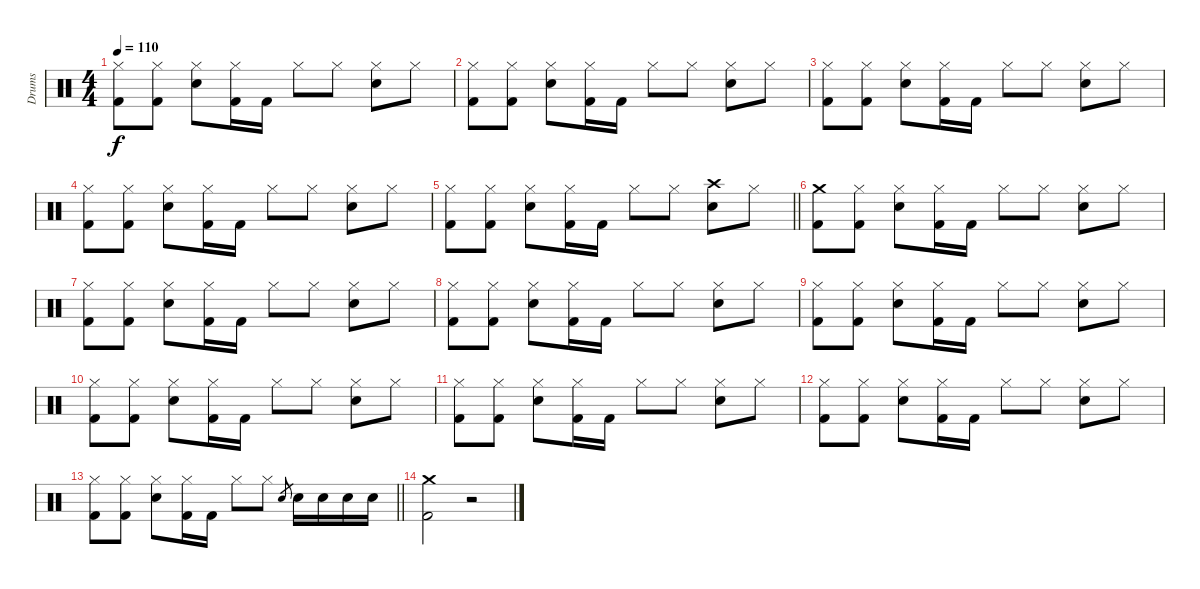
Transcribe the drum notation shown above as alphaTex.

\track ("Drums" "Drums") {instrument percussion}
\staff {score}
\articulation defaults
\ts (4 4)
\tempo 110
\clef neutral
\ks c
("Hi-Hat (closed)" "Kick (hit) 2").8{dy f} ("Hi-Hat (closed)" "Kick (hit) 2").8 ("Hi-Hat (closed)" "Snare (hit) 2").8 ("Hi-Hat (closed)" "Kick (hit) 2").16 "Kick (hit) 2".16 "Hi-Hat (closed)".8 "Hi-Hat (closed)".8 ("Hi-Hat (closed)" "Snare (hit) 2").8 "Hi-Hat (closed)".8 |
("Hi-Hat (closed)" "Kick (hit) 2").8 ("Hi-Hat (closed)" "Kick (hit) 2").8 ("Hi-Hat (closed)" "Snare (hit) 2").8 ("Hi-Hat (closed)" "Kick (hit) 2").16 "Kick (hit) 2".16 "Hi-Hat (closed)".8 "Hi-Hat (closed)".8 ("Hi-Hat (closed)" "Snare (hit) 2").8 "Hi-Hat (closed)".8 |
("Hi-Hat (closed)" "Kick (hit) 2").8 ("Hi-Hat (closed)" "Kick (hit) 2").8 ("Hi-Hat (closed)" "Snare (hit) 2").8 ("Hi-Hat (closed)" "Kick (hit) 2").16 "Kick (hit) 2".16 "Hi-Hat (closed)".8 "Hi-Hat (closed)".8 ("Hi-Hat (closed)" "Snare (hit) 2").8 "Hi-Hat (closed)".8 |
("Hi-Hat (closed)" "Kick (hit) 2").8 ("Hi-Hat (closed)" "Kick (hit) 2").8 ("Hi-Hat (closed)" "Snare (hit) 2").8 ("Hi-Hat (closed)" "Kick (hit) 2").16 "Kick (hit) 2".16 "Hi-Hat (closed)".8 "Hi-Hat (closed)".8 ("Hi-Hat (closed)" "Snare (hit) 2").8 "Hi-Hat (closed)".8 |
\barLineRight lightlight
("Hi-Hat (closed)" "Kick (hit) 2").8 ("Hi-Hat (closed)" "Kick (hit) 2").8 ("Hi-Hat (closed)" "Snare (hit) 2").8 ("Hi-Hat (closed)" "Kick (hit) 2").16 "Kick (hit) 2".16 "Hi-Hat (closed)".8 "Hi-Hat (closed)".8 ("Crash high (hit)" "Snare (hit) 2").8 "Hi-Hat (closed)".8 |
("Crash medium (hit)" "Kick (hit) 2").8 ("Hi-Hat (closed)" "Kick (hit) 2").8 ("Hi-Hat (closed)" "Snare (hit) 2").8 ("Hi-Hat (closed)" "Kick (hit) 2").16 "Kick (hit) 2".16 "Hi-Hat (closed)".8 "Hi-Hat (closed)".8 ("Hi-Hat (closed)" "Snare (hit) 2").8 "Hi-Hat (closed)".8 |
("Hi-Hat (closed)" "Kick (hit) 2").8 ("Hi-Hat (closed)" "Kick (hit) 2").8 ("Hi-Hat (closed)" "Snare (hit) 2").8 ("Hi-Hat (closed)" "Kick (hit) 2").16 "Kick (hit) 2".16 "Hi-Hat (closed)".8 "Hi-Hat (closed)".8 ("Hi-Hat (closed)" "Snare (hit) 2").8 "Hi-Hat (closed)".8 |
("Hi-Hat (closed)" "Kick (hit) 2").8 ("Hi-Hat (closed)" "Kick (hit) 2").8 ("Hi-Hat (closed)" "Snare (hit) 2").8 ("Hi-Hat (closed)" "Kick (hit) 2").16 "Kick (hit) 2".16 "Hi-Hat (closed)".8 "Hi-Hat (closed)".8 ("Hi-Hat (closed)" "Snare (hit) 2").8 "Hi-Hat (closed)".8 |
("Hi-Hat (closed)" "Kick (hit) 2").8 ("Hi-Hat (closed)" "Kick (hit) 2").8 ("Hi-Hat (closed)" "Snare (hit) 2").8 ("Hi-Hat (closed)" "Kick (hit) 2").16 "Kick (hit) 2".16 "Hi-Hat (closed)".8 "Hi-Hat (closed)".8 ("Hi-Hat (closed)" "Snare (hit) 2").8 "Hi-Hat (closed)".8 |
("Hi-Hat (closed)" "Kick (hit) 2").8 ("Hi-Hat (closed)" "Kick (hit) 2").8 ("Hi-Hat (closed)" "Snare (hit) 2").8 ("Hi-Hat (closed)" "Kick (hit) 2").16 "Kick (hit) 2".16 "Hi-Hat (closed)".8 "Hi-Hat (closed)".8 ("Hi-Hat (closed)" "Snare (hit) 2").8 "Hi-Hat (closed)".8 |
("Hi-Hat (closed)" "Kick (hit) 2").8 ("Hi-Hat (closed)" "Kick (hit) 2").8 ("Hi-Hat (closed)" "Snare (hit) 2").8 ("Hi-Hat (closed)" "Kick (hit) 2").16 "Kick (hit) 2".16 "Hi-Hat (closed)".8 "Hi-Hat (closed)".8 ("Hi-Hat (closed)" "Snare (hit) 2").8 "Hi-Hat (closed)".8 |
("Hi-Hat (closed)" "Kick (hit) 2").8 ("Hi-Hat (closed)" "Kick (hit) 2").8 ("Hi-Hat (closed)" "Snare (hit) 2").8 ("Hi-Hat (closed)" "Kick (hit) 2").16 "Kick (hit) 2".16 "Hi-Hat (closed)".8 "Hi-Hat (closed)".8 ("Hi-Hat (closed)" "Snare (hit) 2").8 "Hi-Hat (closed)".8 |
\barLineRight lightlight
("Hi-Hat (closed)" "Kick (hit) 2").8 ("Hi-Hat (closed)" "Kick (hit) 2").8 ("Hi-Hat (closed)" "Snare (hit) 2").8 ("Hi-Hat (closed)" "Kick (hit) 2").16 "Kick (hit) 2".16 "Hi-Hat (closed)".8 "Hi-Hat (closed)".8 "Electric Snare (hit)".8{gr} "Snare (hit) 2".16 "Snare (hit) 2".16 "Snare (hit) 2".16 "Snare (hit) 2".16 |
("Crash medium (hit)" "Kick (hit) 2").2 r.2
